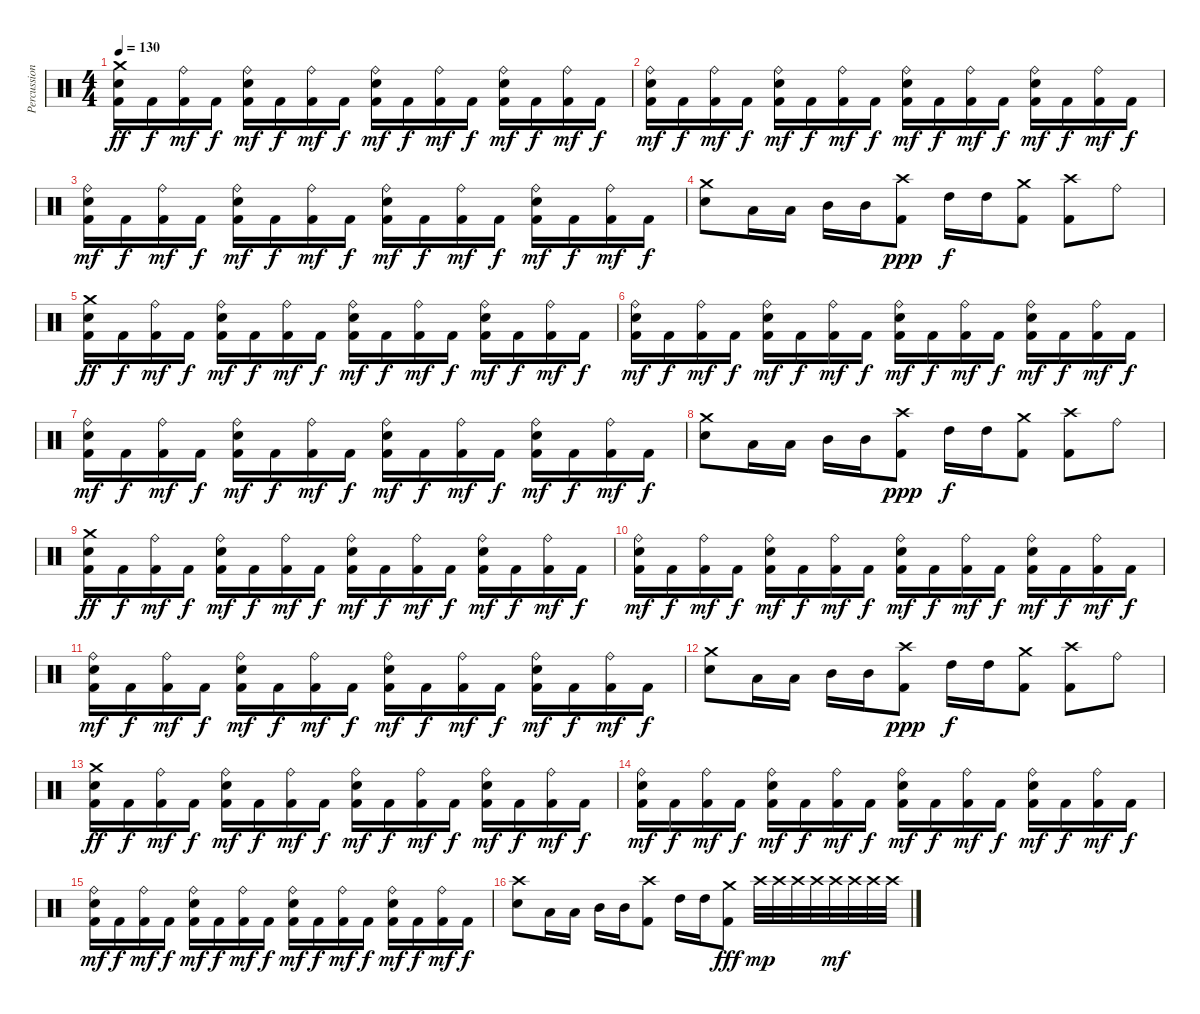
\track ("Percussion" "Percussion") {instrument percussion}
\staff {score}
\articulation defaults
\ts (4 4)
\tempo 130
\clef neutral
\ks c
("Crash medium (hit)" "Electric Snare (hit)" "Kick (hit) 2").16{dy ff} "Kick (hit) 2".16{dy f} ("Ride (bell)" "Kick (hit) 2").16{dy mf} "Kick (hit) 2".16{dy f} ("Ride (bell)" "Electric Snare (hit)" "Kick (hit) 2").16{dy mf} "Kick (hit) 2".16{dy f} ("Ride (bell)" "Kick (hit) 2").16{dy mf} "Kick (hit) 2".16{dy f} ("Ride (bell)" "Electric Snare (hit)" "Kick (hit) 2").16{dy mf} "Kick (hit) 2".16{dy f} ("Ride (bell)" "Kick (hit) 2").16{dy mf} "Kick (hit) 2".16{dy f} ("Ride (bell)" "Electric Snare (hit)" "Kick (hit) 2").16{dy mf} "Kick (hit) 2".16{dy f} ("Ride (bell)" "Kick (hit) 2").16{dy mf} "Kick (hit) 2".16{dy f} |
("Ride (bell)" "Electric Snare (hit)" "Kick (hit) 2").16{dy mf} "Kick (hit) 2".16{dy f} ("Ride (bell)" "Kick (hit) 2").16{dy mf} "Kick (hit) 2".16{dy f} ("Ride (bell)" "Electric Snare (hit)" "Kick (hit) 2").16{dy mf} "Kick (hit) 2".16{dy f} ("Ride (bell)" "Kick (hit) 2").16{dy mf} "Kick (hit) 2".16{dy f} ("Ride (bell)" "Electric Snare (hit)" "Kick (hit) 2").16{dy mf} "Kick (hit) 2".16{dy f} ("Ride (bell)" "Kick (hit) 2").16{dy mf} "Kick (hit) 2".16{dy f} ("Ride (bell)" "Electric Snare (hit)" "Kick (hit) 2").16{dy mf} "Kick (hit) 2".16{dy f} ("Ride (bell)" "Kick (hit) 2").16{dy mf} "Kick (hit) 2".16{dy f} |
("Ride (bell)" "Electric Snare (hit)" "Kick (hit) 2").16{dy mf} "Kick (hit) 2".16{dy f} ("Ride (bell)" "Kick (hit) 2").16{dy mf} "Kick (hit) 2".16{dy f} ("Ride (bell)" "Electric Snare (hit)" "Kick (hit) 2").16{dy mf} "Kick (hit) 2".16{dy f} ("Ride (bell)" "Kick (hit) 2").16{dy mf} "Kick (hit) 2".16{dy f} ("Ride (bell)" "Electric Snare (hit)" "Kick (hit) 2").16{dy mf} "Kick (hit) 2".16{dy f} ("Ride (bell)" "Kick (hit) 2").16{dy mf} "Kick (hit) 2".16{dy f} ("Ride (bell)" "Electric Snare (hit)" "Kick (hit) 2").16{dy mf} "Kick (hit) 2".16{dy f} ("Ride (bell)" "Kick (hit) 2").16{dy mf} "Kick (hit) 2".16{dy f} |
("Crash medium (hit)" "Electric Snare (hit)").8 "Low Tom (hit)".16 "Low Tom (hit)".16 "Mid Tom (hit)".16 "Mid Tom (hit)".16 ("Crash high (hit)" "Kick (hit) 2").8{dy ppp} "High Tom (hit)".16{dy f} "High Tom (hit)".16 ("Crash medium (hit)" "Kick (hit) 2").8 ("Crash high (hit)" "Kick (hit) 2").8 "Ride (bell)".8 |
("Crash medium (hit)" "Electric Snare (hit)" "Kick (hit) 2").16{dy ff} "Kick (hit) 2".16{dy f} ("Ride (bell)" "Kick (hit) 2").16{dy mf} "Kick (hit) 2".16{dy f} ("Ride (bell)" "Electric Snare (hit)" "Kick (hit) 2").16{dy mf} "Kick (hit) 2".16{dy f} ("Ride (bell)" "Kick (hit) 2").16{dy mf} "Kick (hit) 2".16{dy f} ("Ride (bell)" "Electric Snare (hit)" "Kick (hit) 2").16{dy mf} "Kick (hit) 2".16{dy f} ("Ride (bell)" "Kick (hit) 2").16{dy mf} "Kick (hit) 2".16{dy f} ("Ride (bell)" "Electric Snare (hit)" "Kick (hit) 2").16{dy mf} "Kick (hit) 2".16{dy f} ("Ride (bell)" "Kick (hit) 2").16{dy mf} "Kick (hit) 2".16{dy f} |
("Ride (bell)" "Electric Snare (hit)" "Kick (hit) 2").16{dy mf} "Kick (hit) 2".16{dy f} ("Ride (bell)" "Kick (hit) 2").16{dy mf} "Kick (hit) 2".16{dy f} ("Ride (bell)" "Electric Snare (hit)" "Kick (hit) 2").16{dy mf} "Kick (hit) 2".16{dy f} ("Ride (bell)" "Kick (hit) 2").16{dy mf} "Kick (hit) 2".16{dy f} ("Ride (bell)" "Electric Snare (hit)" "Kick (hit) 2").16{dy mf} "Kick (hit) 2".16{dy f} ("Ride (bell)" "Kick (hit) 2").16{dy mf} "Kick (hit) 2".16{dy f} ("Ride (bell)" "Electric Snare (hit)" "Kick (hit) 2").16{dy mf} "Kick (hit) 2".16{dy f} ("Ride (bell)" "Kick (hit) 2").16{dy mf} "Kick (hit) 2".16{dy f} |
("Ride (bell)" "Electric Snare (hit)" "Kick (hit) 2").16{dy mf} "Kick (hit) 2".16{dy f} ("Ride (bell)" "Kick (hit) 2").16{dy mf} "Kick (hit) 2".16{dy f} ("Ride (bell)" "Electric Snare (hit)" "Kick (hit) 2").16{dy mf} "Kick (hit) 2".16{dy f} ("Ride (bell)" "Kick (hit) 2").16{dy mf} "Kick (hit) 2".16{dy f} ("Ride (bell)" "Electric Snare (hit)" "Kick (hit) 2").16{dy mf} "Kick (hit) 2".16{dy f} ("Ride (bell)" "Kick (hit) 2").16{dy mf} "Kick (hit) 2".16{dy f} ("Ride (bell)" "Electric Snare (hit)" "Kick (hit) 2").16{dy mf} "Kick (hit) 2".16{dy f} ("Ride (bell)" "Kick (hit) 2").16{dy mf} "Kick (hit) 2".16{dy f} |
("Crash medium (hit)" "Electric Snare (hit)").8 "Low Tom (hit)".16 "Low Tom (hit)".16 "Mid Tom (hit)".16 "Mid Tom (hit)".16 ("Crash high (hit)" "Kick (hit) 2").8{dy ppp} "High Tom (hit)".16{dy f} "High Tom (hit)".16 ("Crash medium (hit)" "Kick (hit) 2").8 ("Crash high (hit)" "Kick (hit) 2").8 "Ride (bell)".8 |
("Crash medium (hit)" "Electric Snare (hit)" "Kick (hit) 2").16{dy ff} "Kick (hit) 2".16{dy f} ("Ride (bell)" "Kick (hit) 2").16{dy mf} "Kick (hit) 2".16{dy f} ("Ride (bell)" "Electric Snare (hit)" "Kick (hit) 2").16{dy mf} "Kick (hit) 2".16{dy f} ("Ride (bell)" "Kick (hit) 2").16{dy mf} "Kick (hit) 2".16{dy f} ("Ride (bell)" "Electric Snare (hit)" "Kick (hit) 2").16{dy mf} "Kick (hit) 2".16{dy f} ("Ride (bell)" "Kick (hit) 2").16{dy mf} "Kick (hit) 2".16{dy f} ("Ride (bell)" "Electric Snare (hit)" "Kick (hit) 2").16{dy mf} "Kick (hit) 2".16{dy f} ("Ride (bell)" "Kick (hit) 2").16{dy mf} "Kick (hit) 2".16{dy f} |
("Ride (bell)" "Electric Snare (hit)" "Kick (hit) 2").16{dy mf} "Kick (hit) 2".16{dy f} ("Ride (bell)" "Kick (hit) 2").16{dy mf} "Kick (hit) 2".16{dy f} ("Ride (bell)" "Electric Snare (hit)" "Kick (hit) 2").16{dy mf} "Kick (hit) 2".16{dy f} ("Ride (bell)" "Kick (hit) 2").16{dy mf} "Kick (hit) 2".16{dy f} ("Ride (bell)" "Electric Snare (hit)" "Kick (hit) 2").16{dy mf} "Kick (hit) 2".16{dy f} ("Ride (bell)" "Kick (hit) 2").16{dy mf} "Kick (hit) 2".16{dy f} ("Ride (bell)" "Electric Snare (hit)" "Kick (hit) 2").16{dy mf} "Kick (hit) 2".16{dy f} ("Ride (bell)" "Kick (hit) 2").16{dy mf} "Kick (hit) 2".16{dy f} |
("Ride (bell)" "Electric Snare (hit)" "Kick (hit) 2").16{dy mf} "Kick (hit) 2".16{dy f} ("Ride (bell)" "Kick (hit) 2").16{dy mf} "Kick (hit) 2".16{dy f} ("Ride (bell)" "Electric Snare (hit)" "Kick (hit) 2").16{dy mf} "Kick (hit) 2".16{dy f} ("Ride (bell)" "Kick (hit) 2").16{dy mf} "Kick (hit) 2".16{dy f} ("Ride (bell)" "Electric Snare (hit)" "Kick (hit) 2").16{dy mf} "Kick (hit) 2".16{dy f} ("Ride (bell)" "Kick (hit) 2").16{dy mf} "Kick (hit) 2".16{dy f} ("Ride (bell)" "Electric Snare (hit)" "Kick (hit) 2").16{dy mf} "Kick (hit) 2".16{dy f} ("Ride (bell)" "Kick (hit) 2").16{dy mf} "Kick (hit) 2".16{dy f} |
("Crash medium (hit)" "Electric Snare (hit)").8 "Low Tom (hit)".16 "Low Tom (hit)".16 "Mid Tom (hit)".16 "Mid Tom (hit)".16 ("Crash high (hit)" "Kick (hit) 2").8{dy ppp} "High Tom (hit)".16{dy f} "High Tom (hit)".16 ("Crash medium (hit)" "Kick (hit) 2").8 ("Crash high (hit)" "Kick (hit) 2").8 "Ride (bell)".8 |
("Crash medium (hit)" "Electric Snare (hit)" "Kick (hit) 2").16{dy ff} "Kick (hit) 2".16{dy f} ("Ride (bell)" "Kick (hit) 2").16{dy mf} "Kick (hit) 2".16{dy f} ("Ride (bell)" "Electric Snare (hit)" "Kick (hit) 2").16{dy mf} "Kick (hit) 2".16{dy f} ("Ride (bell)" "Kick (hit) 2").16{dy mf} "Kick (hit) 2".16{dy f} ("Ride (bell)" "Electric Snare (hit)" "Kick (hit) 2").16{dy mf} "Kick (hit) 2".16{dy f} ("Ride (bell)" "Kick (hit) 2").16{dy mf} "Kick (hit) 2".16{dy f} ("Ride (bell)" "Electric Snare (hit)" "Kick (hit) 2").16{dy mf} "Kick (hit) 2".16{dy f} ("Ride (bell)" "Kick (hit) 2").16{dy mf} "Kick (hit) 2".16{dy f} |
("Ride (bell)" "Electric Snare (hit)" "Kick (hit) 2").16{dy mf} "Kick (hit) 2".16{dy f} ("Ride (bell)" "Kick (hit) 2").16{dy mf} "Kick (hit) 2".16{dy f} ("Ride (bell)" "Electric Snare (hit)" "Kick (hit) 2").16{dy mf} "Kick (hit) 2".16{dy f} ("Ride (bell)" "Kick (hit) 2").16{dy mf} "Kick (hit) 2".16{dy f} ("Ride (bell)" "Electric Snare (hit)" "Kick (hit) 2").16{dy mf} "Kick (hit) 2".16{dy f} ("Ride (bell)" "Kick (hit) 2").16{dy mf} "Kick (hit) 2".16{dy f} ("Ride (bell)" "Electric Snare (hit)" "Kick (hit) 2").16{dy mf} "Kick (hit) 2".16{dy f} ("Ride (bell)" "Kick (hit) 2").16{dy mf} "Kick (hit) 2".16{dy f} |
("Ride (bell)" "Electric Snare (hit)" "Kick (hit) 2").16{dy mf} "Kick (hit) 2".16{dy f} ("Ride (bell)" "Kick (hit) 2").16{dy mf} "Kick (hit) 2".16{dy f} ("Ride (bell)" "Electric Snare (hit)" "Kick (hit) 2").16{dy mf} "Kick (hit) 2".16{dy f} ("Ride (bell)" "Kick (hit) 2").16{dy mf} "Kick (hit) 2".16{dy f} ("Ride (bell)" "Electric Snare (hit)" "Kick (hit) 2").16{dy mf} "Kick (hit) 2".16{dy f} ("Ride (bell)" "Kick (hit) 2").16{dy mf} "Kick (hit) 2".16{dy f} ("Ride (bell)" "Electric Snare (hit)" "Kick (hit) 2").16{dy mf} "Kick (hit) 2".16{dy f} ("Ride (bell)" "Kick (hit) 2").16{dy mf} "Kick (hit) 2".16{dy f} |
("Crash high (hit)" "Electric Snare (hit)").8 "Low Tom (hit)".16 "Low Tom (hit)".16 "Mid Tom (hit)".16 "Mid Tom (hit)".16 ("Crash high (hit)" "Kick (hit) 2").8 "High Tom (hit)".16 "High Tom (hit)".16 ("Crash medium (hit)" "Kick (hit) 2").8{dy fff} "Crash high (hit)".32{dy mp} "Crash high (hit)".32 "Crash high (hit)".32 "Crash high (hit)".32 "Crash high (hit)".32{dy mf} "Crash high (hit)".32 "Crash high (hit)".32 "Crash high (hit)".32
